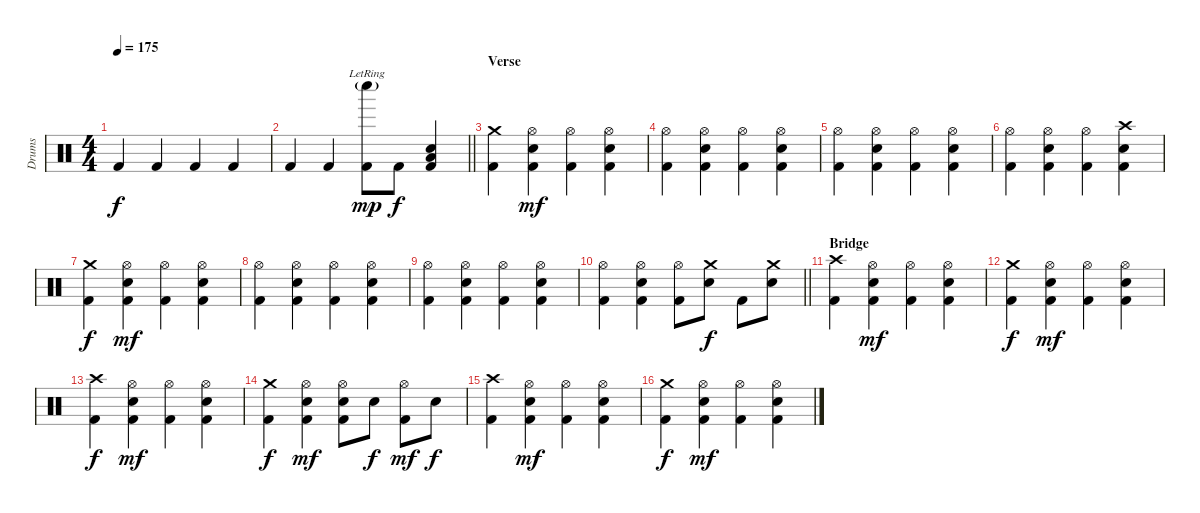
\track ("Drums" "Drums") {instrument percussion}
\staff {score}
\articulation defaults
\ts (4 4)
\tempo 175
\clef neutral
\ks c "Kick (hit) 2".4{dy f} "Kick (hit) 2".4 "Kick (hit) 2".4 "Kick (hit) 2".4
|
\barLineRight lightlight "Kick (hit) 2".4 "Kick (hit) 2".4
("Whistle low (hit)"{g lr} "Kick (hit) 2").8{dy mp} "Kick (hit) 2".8{dy f} ("Low Tom (hit)" "Electric Snare (hit)" "Kick (hit) 2").4 |
\section ("" "Verse")
("Crash medium (hit)" "Kick (hit) 2").4 ("Hi-Hat (open)" "Electric Snare (hit)" "Kick (hit) 2").4{dy mf} ("Hi-Hat (open)" "Kick (hit) 2").4 ("Hi-Hat (open)" "Electric Snare (hit)" "Kick (hit) 2").4 |
("Hi-Hat (open)" "Kick (hit) 2").4 ("Hi-Hat (open)" "Electric Snare (hit)" "Kick (hit) 2").4 ("Hi-Hat (open)" "Kick (hit) 2").4 ("Hi-Hat (open)" "Electric Snare (hit)" "Kick (hit) 2").4 |
("Hi-Hat (open)" "Kick (hit) 2").4 ("Hi-Hat (open)" "Electric Snare (hit)" "Kick (hit) 2").4 ("Hi-Hat (open)" "Kick (hit) 2").4 ("Hi-Hat (open)" "Electric Snare (hit)" "Kick (hit) 2").4 |
("Hi-Hat (open)" "Kick (hit) 2").4 ("Hi-Hat (open)" "Electric Snare (hit)" "Kick (hit) 2").4 ("Hi-Hat (open)" "Kick (hit) 2").4 ("Crash high (hit)" "Electric Snare (hit)" "Kick (hit) 2").4 |
("Crash medium (hit)" "Kick (hit) 2").4{dy f} ("Hi-Hat (open)" "Electric Snare (hit)" "Kick (hit) 2").4{dy mf} ("Hi-Hat (open)" "Kick (hit) 2").4 ("Hi-Hat (open)" "Electric Snare (hit)" "Kick (hit) 2").4 |
("Hi-Hat (open)" "Kick (hit) 2").4 ("Hi-Hat (open)" "Electric Snare (hit)" "Kick (hit) 2").4 ("Hi-Hat (open)" "Kick (hit) 2").4 ("Hi-Hat (open)" "Electric Snare (hit)" "Kick (hit) 2").4 |
("Hi-Hat (open)" "Kick (hit) 2").4 ("Hi-Hat (open)" "Electric Snare (hit)" "Kick (hit) 2").4 ("Hi-Hat (open)" "Kick (hit) 2").4 ("Hi-Hat (open)" "Electric Snare (hit)" "Kick (hit) 2").4 |
\barLineRight lightlight
("Hi-Hat (open)" "Kick (hit) 2").4 ("Hi-Hat (open)" "Electric Snare (hit)" "Kick (hit) 2").4 ("Hi-Hat (open)" "Kick (hit) 2").8 ("Crash medium (hit)" "Electric Snare (hit)").8{dy f} "Kick (hit) 2".8 ("Crash medium (hit)" "Electric Snare (hit)").8 |
\section ("" "Bridge")
("Crash high (hit)" "Kick (hit) 2").4 ("Hi-Hat (open)" "Electric Snare (hit)" "Kick (hit) 2").4{dy mf} ("Hi-Hat (open)" "Kick (hit) 2").4 ("Hi-Hat (open)" "Electric Snare (hit)" "Kick (hit) 2").4 |
("Crash medium (hit)" "Kick (hit) 2").4{dy f} ("Hi-Hat (open)" "Electric Snare (hit)" "Kick (hit) 2").4{dy mf} ("Hi-Hat (open)" "Kick (hit) 2").4 ("Hi-Hat (open)" "Electric Snare (hit)" "Kick (hit) 2").4 |
("Crash high (hit)" "Kick (hit) 2").4{dy f} ("Hi-Hat (open)" "Electric Snare (hit)" "Kick (hit) 2").4{dy mf} ("Hi-Hat (open)" "Kick (hit) 2").4 ("Hi-Hat (open)" "Electric Snare (hit)" "Kick (hit) 2").4 |
("Crash medium (hit)" "Kick (hit) 2").4{dy f} ("Hi-Hat (open)" "Electric Snare (hit)" "Kick (hit) 2").4{dy mf} ("Hi-Hat (open)" "Electric Snare (hit)" "Kick (hit) 2").8 "Electric Snare (hit)".8{dy f} ("Hi-Hat (open)" "Kick (hit) 2").8{dy mf} "Electric Snare (hit)".8{dy f} |
("Crash high (hit)" "Kick (hit) 2").4 ("Hi-Hat (open)" "Electric Snare (hit)" "Kick (hit) 2").4{dy mf} ("Hi-Hat (open)" "Kick (hit) 2").4 ("Hi-Hat (open)" "Electric Snare (hit)" "Kick (hit) 2").4 |
("Crash medium (hit)" "Kick (hit) 2").4{dy f} ("Hi-Hat (open)" "Electric Snare (hit)" "Kick (hit) 2").4{dy mf} ("Hi-Hat (open)" "Kick (hit) 2").4 ("Hi-Hat (open)" "Electric Snare (hit)" "Kick (hit) 2").4
